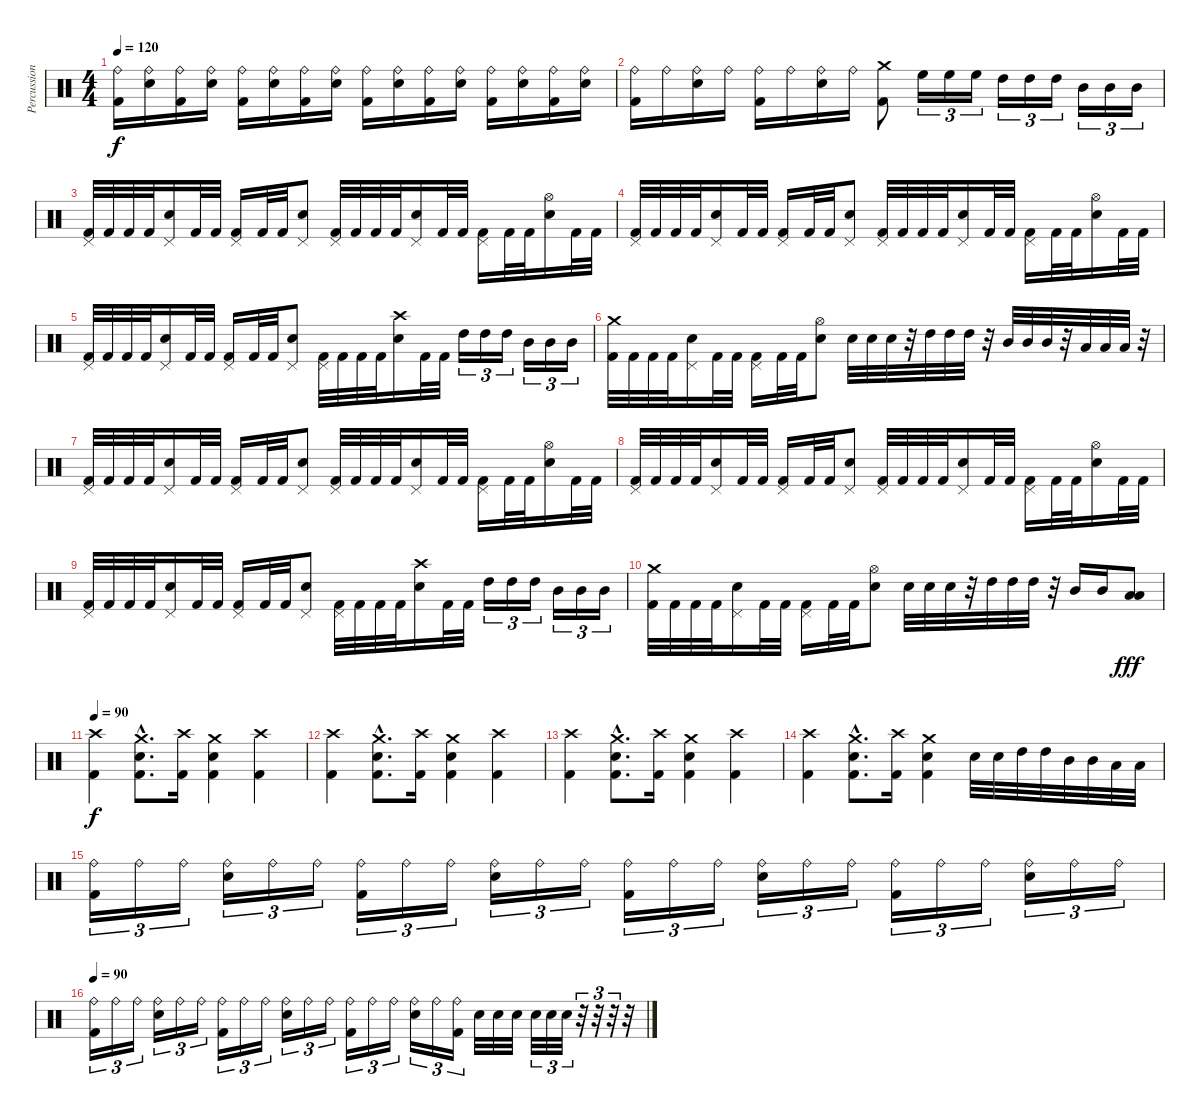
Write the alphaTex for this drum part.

\track ("Percussion" "Percussion") {instrument percussion}
\staff {score}
\articulation defaults
\ts (4 4)
\tempo 120
\clef neutral
\ks c
("Ride (bell)" "Kick (hit) 2").16{dy f} ("Ride (bell)" "Electric Snare (hit)").16 ("Ride (bell)" "Kick (hit) 2").16 ("Ride (bell)" "Electric Snare (hit)").16 ("Ride (bell)" "Kick (hit) 2").16 ("Ride (bell)" "Electric Snare (hit)").16 ("Ride (bell)" "Kick (hit) 2").16 ("Ride (bell)" "Electric Snare (hit)").16 ("Ride (bell)" "Kick (hit) 2").16 ("Ride (bell)" "Electric Snare (hit)").16 ("Ride (bell)" "Kick (hit) 2").16 ("Ride (bell)" "Electric Snare (hit)").16 ("Ride (bell)" "Kick (hit) 2").16 ("Ride (bell)" "Electric Snare (hit)").16 ("Ride (bell)" "Kick (hit) 2").16 ("Ride (bell)" "Electric Snare (hit)").16 |
("Ride (bell)" "Kick (hit) 2").16 "Ride (bell)".16 ("Ride (bell)" "Electric Snare (hit)").16 "Ride (bell)".16 ("Ride (bell)" "Kick (hit) 2").16 "Ride (bell)".16 ("Ride (bell)" "Electric Snare (hit)").16 "Ride (bell)".16 ("Crash medium (hit)" "Kick (hit) 2").8 "High Floor Tom (hit)".16{tu (3 2)} "High Floor Tom (hit)".16{tu (3 2)} "High Floor Tom (hit)".16{tu (3 2)} "High Tom (hit)".16{tu (3 2)} "High Tom (hit)".16{tu (3 2)} "High Tom (hit)".16{tu (3 2)} "Mid Tom (hit)".16{tu (3 2)} "Mid Tom (hit)".16{tu (3 2)} "Mid Tom (hit)".16{tu (3 2)} |
("Pedal Hi-Hat (hit)" "Kick (hit) 2").32 "Kick (hit) 2".32 "Kick (hit) 2".32 "Kick (hit) 2".32 ("Pedal Hi-Hat (hit)" "Electric Snare (hit)").16 "Kick (hit) 2".32 "Kick (hit) 2".32 ("Pedal Hi-Hat (hit)" "Kick (hit) 2").16 "Kick (hit) 2".32 "Kick (hit) 2".32 ("Pedal Hi-Hat (hit)" "Electric Snare (hit)").8 ("Pedal Hi-Hat (hit)" "Kick (hit) 2").32 "Kick (hit) 2".32 "Kick (hit) 2".32 "Kick (hit) 2".32 ("Pedal Hi-Hat (hit)" "Electric Snare (hit)").16 "Kick (hit) 2".32 "Kick (hit) 2".32 ("Pedal Hi-Hat (hit)" "Kick (hit) 2").16 "Kick (hit) 2".32 "Kick (hit) 2".32 ("Hi-Hat (open)" "Electric Snare (hit)").16 "Kick (hit) 2".32 "Kick (hit) 2".32 |
("Pedal Hi-Hat (hit)" "Kick (hit) 2").32 "Kick (hit) 2".32 "Kick (hit) 2".32 "Kick (hit) 2".32 ("Pedal Hi-Hat (hit)" "Electric Snare (hit)").16 "Kick (hit) 2".32 "Kick (hit) 2".32 ("Pedal Hi-Hat (hit)" "Kick (hit) 2").16 "Kick (hit) 2".32 "Kick (hit) 2".32 ("Pedal Hi-Hat (hit)" "Electric Snare (hit)").8 ("Pedal Hi-Hat (hit)" "Kick (hit) 2").32 "Kick (hit) 2".32 "Kick (hit) 2".32 "Kick (hit) 2".32 ("Pedal Hi-Hat (hit)" "Electric Snare (hit)").16 "Kick (hit) 2".32 "Kick (hit) 2".32 ("Pedal Hi-Hat (hit)" "Kick (hit) 2").16 "Kick (hit) 2".32 "Kick (hit) 2".32 ("Hi-Hat (open)" "Electric Snare (hit)").16 "Kick (hit) 2".32 "Kick (hit) 2".32 |
("Pedal Hi-Hat (hit)" "Kick (hit) 2").32 "Kick (hit) 2".32 "Kick (hit) 2".32 "Kick (hit) 2".32 ("Pedal Hi-Hat (hit)" "Electric Snare (hit)").16 "Kick (hit) 2".32 "Kick (hit) 2".32 ("Pedal Hi-Hat (hit)" "Kick (hit) 2").16 "Kick (hit) 2".32 "Kick (hit) 2".32 ("Pedal Hi-Hat (hit)" "Electric Snare (hit)").8 ("Pedal Hi-Hat (hit)" "Kick (hit) 2").32 "Kick (hit) 2".32 "Kick (hit) 2".32 "Kick (hit) 2".32 ("Crash high (hit)" "Electric Snare (hit)").16 "Kick (hit) 2".32 "Kick (hit) 2".32 "High Tom (hit)".16{tu (3 2)} "High Tom (hit)".16{tu (3 2)} "High Tom (hit)".16{tu (3 2)} "Mid Tom (hit)".16{tu (3 2)} "Mid Tom (hit)".16{tu (3 2)} "Mid Tom (hit)".16{tu (3 2)} |
("Crash medium (hit)" "Kick (hit) 2").32 "Kick (hit) 2".32 "Kick (hit) 2".32 "Kick (hit) 2".32 ("Pedal Hi-Hat (hit)" "Electric Snare (hit)").16 "Kick (hit) 2".32 "Kick (hit) 2".32 ("Pedal Hi-Hat (hit)" "Kick (hit) 2").16 "Kick (hit) 2".32 "Kick (hit) 2".32 ("Hi-Hat (open)" "Electric Snare (hit)").8 "Electric Snare (hit)".32 "Electric Snare (hit)".32 "Electric Snare (hit)".32 r.32 "High Tom (hit)".32 "High Tom (hit)".32 "High Tom (hit)".32 r.32 "Mid Tom (hit)".32 "Mid Tom (hit)".32 "Mid Tom (hit)".32 r.32 "Low Tom (hit)".32 "Low Tom (hit)".32 "Low Tom (hit)".32 r.32 |
("Pedal Hi-Hat (hit)" "Kick (hit) 2").32 "Kick (hit) 2".32 "Kick (hit) 2".32 "Kick (hit) 2".32 ("Pedal Hi-Hat (hit)" "Electric Snare (hit)").16 "Kick (hit) 2".32 "Kick (hit) 2".32 ("Pedal Hi-Hat (hit)" "Kick (hit) 2").16 "Kick (hit) 2".32 "Kick (hit) 2".32 ("Pedal Hi-Hat (hit)" "Electric Snare (hit)").8 ("Pedal Hi-Hat (hit)" "Kick (hit) 2").32 "Kick (hit) 2".32 "Kick (hit) 2".32 "Kick (hit) 2".32 ("Pedal Hi-Hat (hit)" "Electric Snare (hit)").16 "Kick (hit) 2".32 "Kick (hit) 2".32 ("Pedal Hi-Hat (hit)" "Kick (hit) 2").16 "Kick (hit) 2".32 "Kick (hit) 2".32 ("Hi-Hat (open)" "Electric Snare (hit)").16 "Kick (hit) 2".32 "Kick (hit) 2".32 |
("Pedal Hi-Hat (hit)" "Kick (hit) 2").32 "Kick (hit) 2".32 "Kick (hit) 2".32 "Kick (hit) 2".32 ("Pedal Hi-Hat (hit)" "Electric Snare (hit)").16 "Kick (hit) 2".32 "Kick (hit) 2".32 ("Pedal Hi-Hat (hit)" "Kick (hit) 2").16 "Kick (hit) 2".32 "Kick (hit) 2".32 ("Pedal Hi-Hat (hit)" "Electric Snare (hit)").8 ("Pedal Hi-Hat (hit)" "Kick (hit) 2").32 "Kick (hit) 2".32 "Kick (hit) 2".32 "Kick (hit) 2".32 ("Pedal Hi-Hat (hit)" "Electric Snare (hit)").16 "Kick (hit) 2".32 "Kick (hit) 2".32 ("Pedal Hi-Hat (hit)" "Kick (hit) 2").16 "Kick (hit) 2".32 "Kick (hit) 2".32 ("Hi-Hat (open)" "Electric Snare (hit)").16 "Kick (hit) 2".32 "Kick (hit) 2".32 |
("Pedal Hi-Hat (hit)" "Kick (hit) 2").32 "Kick (hit) 2".32 "Kick (hit) 2".32 "Kick (hit) 2".32 ("Pedal Hi-Hat (hit)" "Electric Snare (hit)").16 "Kick (hit) 2".32 "Kick (hit) 2".32 ("Pedal Hi-Hat (hit)" "Kick (hit) 2").16 "Kick (hit) 2".32 "Kick (hit) 2".32 ("Pedal Hi-Hat (hit)" "Electric Snare (hit)").8 ("Pedal Hi-Hat (hit)" "Kick (hit) 2").32 "Kick (hit) 2".32 "Kick (hit) 2".32 "Kick (hit) 2".32 ("Crash high (hit)" "Electric Snare (hit)").16 "Kick (hit) 2".32 "Kick (hit) 2".32 "High Tom (hit)".16{tu (3 2)} "High Tom (hit)".16{tu (3 2)} "High Tom (hit)".16{tu (3 2)} "Mid Tom (hit)".16{tu (3 2)} "Mid Tom (hit)".16{tu (3 2)} "Mid Tom (hit)".16{tu (3 2)} |
("Crash medium (hit)" "Kick (hit) 2").32 "Kick (hit) 2".32 "Kick (hit) 2".32 "Kick (hit) 2".32 ("Pedal Hi-Hat (hit)" "Electric Snare (hit)").16 "Kick (hit) 2".32 "Kick (hit) 2".32 ("Pedal Hi-Hat (hit)" "Kick (hit) 2").16 "Kick (hit) 2".32 "Kick (hit) 2".32 ("Hi-Hat (open)" "Electric Snare (hit)").8 "Electric Snare (hit)".32 "Electric Snare (hit)".32 "Electric Snare (hit)".32 r.32 "High Tom (hit)".32 "High Tom (hit)".32 "High Tom (hit)".32 r.32 "Mid Tom (hit)".16 "Mid Tom (hit)".16 ("Low Tom (hit)" "Low Tom (hit)").8{dy fff} |
\tempo 90
("Crash high (hit)" "Kick (hit) 2").4{dy f} ("Crash medium (hit)"{hac} "Electric Snare (hit)"{hac} "Kick (hit) 2"{hac}).8{d} ("Crash high (hit)" "Kick (hit) 2").16 ("Crash medium (hit)" "Electric Snare (hit)" "Kick (hit) 2").4 ("Crash high (hit)" "Kick (hit) 2").4 |
("Crash high (hit)" "Kick (hit) 2").4 ("Crash medium (hit)"{hac} "Electric Snare (hit)"{hac} "Kick (hit) 2"{hac}).8{d} ("Crash high (hit)" "Kick (hit) 2").16 ("Crash medium (hit)" "Electric Snare (hit)" "Kick (hit) 2").4 ("Crash high (hit)" "Kick (hit) 2").4 |
("Crash high (hit)" "Kick (hit) 2").4 ("Crash medium (hit)"{hac} "Electric Snare (hit)"{hac} "Kick (hit) 2"{hac}).8{d} ("Crash high (hit)" "Kick (hit) 2").16 ("Crash medium (hit)" "Electric Snare (hit)" "Kick (hit) 2").4 ("Crash high (hit)" "Kick (hit) 2").4 |
("Crash high (hit)" "Kick (hit) 2").4 ("Crash medium (hit)"{hac} "Electric Snare (hit)"{hac} "Kick (hit) 2"{hac}).8{d} ("Crash high (hit)" "Kick (hit) 2").16 ("Crash medium (hit)" "Electric Snare (hit)" "Kick (hit) 2").4 "Electric Snare (hit)".32 "Electric Snare (hit)".32 "High Tom (hit)".32 "High Tom (hit)".32 "Mid Tom (hit)".32 "Mid Tom (hit)".32 "Low Tom (hit)".32 "Low Tom (hit)".32 |
("Ride (bell)" "Kick (hit) 2").16{tu (3 2)} "Ride (bell)".16{tu (3 2)} "Ride (bell)".16{tu (3 2)} ("Ride (bell)" "Electric Snare (hit)").16{tu (3 2)} "Ride (bell)".16{tu (3 2)} "Ride (bell)".16{tu (3 2)} ("Ride (bell)" "Kick (hit) 2").16{tu (3 2)} "Ride (bell)".16{tu (3 2)} "Ride (bell)".16{tu (3 2)} ("Ride (bell)" "Electric Snare (hit)").16{tu (3 2)} "Ride (bell)".16{tu (3 2)} "Ride (bell)".16{tu (3 2)} ("Ride (bell)" "Kick (hit) 2").16{tu (3 2)} "Ride (bell)".16{tu (3 2)} "Ride (bell)".16{tu (3 2)} ("Ride (bell)" "Electric Snare (hit)").16{tu (3 2)} "Ride (bell)".16{tu (3 2)} "Ride (bell)".16{tu (3 2)} ("Ride (bell)" "Kick (hit) 2").16{tu (3 2)} "Ride (bell)".16{tu (3 2)} "Ride (bell)".16{tu (3 2)} ("Ride (bell)" "Electric Snare (hit)").16{tu (3 2)} "Ride (bell)".16{tu (3 2)} "Ride (bell)".16{tu (3 2)} |
\tempo 90
("Ride (bell)" "Kick (hit) 2").16{tu (3 2)} "Ride (bell)".16{tu (3 2)} "Ride (bell)".16{tu (3 2)} ("Ride (bell)" "Electric Snare (hit)").16{tu (3 2)} "Ride (bell)".16{tu (3 2)} "Ride (bell)".16{tu (3 2)} ("Ride (bell)" "Kick (hit) 2").16{tu (3 2)} "Ride (bell)".16{tu (3 2)} "Ride (bell)".16{tu (3 2)} ("Ride (bell)" "Electric Snare (hit)").16{tu (3 2)} "Ride (bell)".16{tu (3 2)} "Ride (bell)".16{tu (3 2)} ("Ride (bell)" "Kick (hit) 2").16{tu (3 2)} "Ride (bell)".16{tu (3 2)} "Ride (bell)".16{tu (3 2)} ("Ride (bell)" "Electric Snare (hit)").16{tu (3 2)} "Ride (bell)".16{tu (3 2)} ("Ride (bell)" "Kick (hit) 2").16{tu (3 2)} "Electric Snare (hit)".32 "Electric Snare (hit)".32 "Electric Snare (hit)".32 "Electric Snare (hit)".32{tu (3 2)} "Electric Snare (hit)".32{tu (3 2)} "Electric Snare (hit)".32{tu (3 2)} r.32{tu (3 2)} r.32{tu (3 2)} r.32{tu (3 2)} r.32
